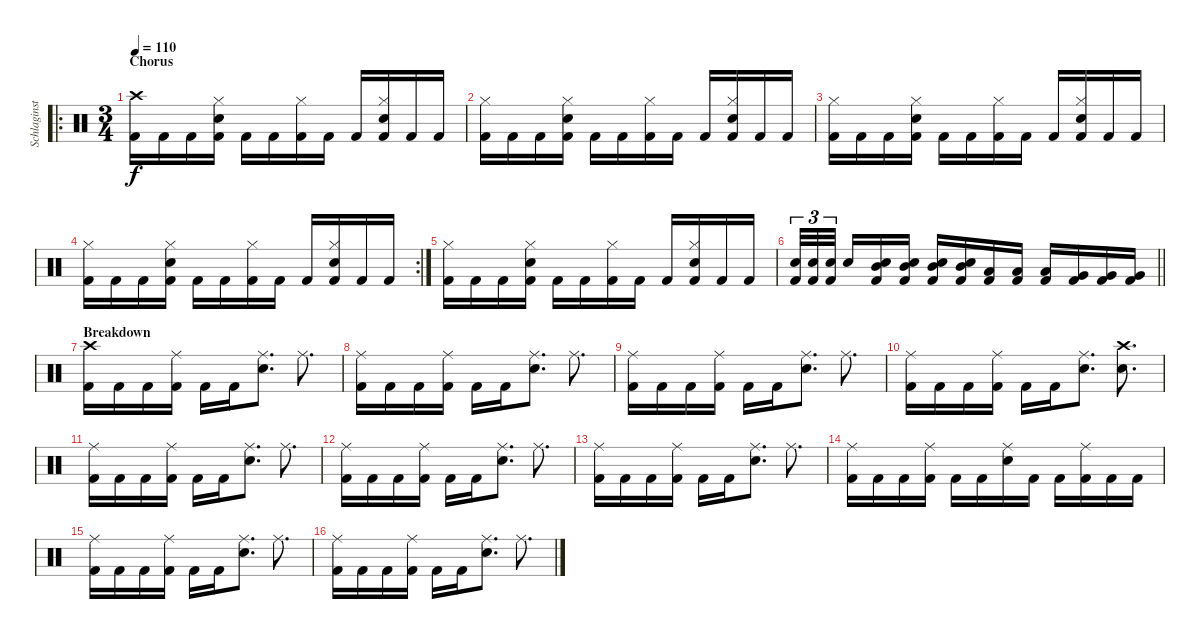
\track ("Schlaginstrumente - Auswahl" "Schlaginst") {instrument percussion}
\staff {score}
\articulation defaults
\ro
\ts (3 4)
\section ("" "Chorus")
\tempo 110
\clef neutral
\ks c
("Crash high (hit)" "Kick (hit) 2").16{dy f} "Kick (hit) 2".16 "Kick (hit) 2".16 ("Hi-Hat (closed)" "Snare (hit) 2" "Kick (hit) 2").16 "Kick (hit) 2".16 "Kick (hit) 2".16 ("Hi-Hat (closed)" "Kick (hit) 2").16 "Kick (hit) 2".16 "Kick (hit) 2".16 ("Hi-Hat (closed)" "Snare (hit) 2" "Kick (hit) 2").16 "Kick (hit) 2".16 "Kick (hit) 2".16 |
("Hi-Hat (closed)" "Kick (hit) 2").16 "Kick (hit) 2".16 "Kick (hit) 2".16 ("Hi-Hat (closed)" "Snare (hit) 2" "Kick (hit) 2").16 "Kick (hit) 2".16 "Kick (hit) 2".16 ("Hi-Hat (closed)" "Kick (hit) 2").16 "Kick (hit) 2".16 "Kick (hit) 2".16 ("Hi-Hat (closed)" "Snare (hit) 2" "Kick (hit) 2").16 "Kick (hit) 2".16 "Kick (hit) 2".16 |
("Hi-Hat (closed)" "Kick (hit) 2").16 "Kick (hit) 2".16 "Kick (hit) 2".16 ("Hi-Hat (closed)" "Snare (hit) 2" "Kick (hit) 2").16 "Kick (hit) 2".16 "Kick (hit) 2".16 ("Hi-Hat (closed)" "Kick (hit) 2").16 "Kick (hit) 2".16 "Kick (hit) 2".16 ("Hi-Hat (closed)" "Snare (hit) 2" "Kick (hit) 2").16 "Kick (hit) 2".16 "Kick (hit) 2".16 |
\rc 2
("Hi-Hat (closed)" "Kick (hit) 2").16 "Kick (hit) 2".16 "Kick (hit) 2".16 ("Hi-Hat (closed)" "Snare (hit) 2" "Kick (hit) 2").16 "Kick (hit) 2".16 "Kick (hit) 2".16 ("Hi-Hat (closed)" "Kick (hit) 2").16 "Kick (hit) 2".16 "Kick (hit) 2".16 ("Hi-Hat (closed)" "Snare (hit) 2" "Kick (hit) 2").16 "Kick (hit) 2".16 "Kick (hit) 2".16 |
("Hi-Hat (closed)" "Kick (hit) 2").16 "Kick (hit) 2".16 "Kick (hit) 2".16 ("Hi-Hat (closed)" "Snare (hit) 2" "Kick (hit) 2").16 "Kick (hit) 2".16 "Kick (hit) 2".16 ("Hi-Hat (closed)" "Kick (hit) 2").16 "Kick (hit) 2".16 "Kick (hit) 2".16 ("Hi-Hat (closed)" "Snare (hit) 2" "Kick (hit) 2").16 "Kick (hit) 2".16 "Kick (hit) 2".16 |
\barLineRight lightlight
("Snare (hit) 2" "Kick (hit) 2").32{tu (3 2)} ("Snare (hit) 2" "Kick (hit) 2").32{tu (3 2)} ("Snare (hit) 2" "Kick (hit) 2").32{tu (3 2) beam splitsecondary} "Snare (hit) 2".16 ("Snare (hit) 2" "Mid Tom (hit)" "Kick (hit) 2").16 ("Snare (hit) 2" "Mid Tom (hit)" "Kick (hit) 2").16 ("Snare (hit) 2" "Mid Tom (hit)" "Kick (hit) 2").16 ("Snare (hit) 2" "Mid Tom (hit)" "Kick (hit) 2").16 ("Low Tom (hit)" "Kick (hit) 2").16 ("Low Tom (hit)" "Kick (hit) 2").16 ("Low Tom (hit)" "Kick (hit) 2").16 ("Very Low Tom (hit)" "Kick (hit) 2").16 ("Very Low Tom (hit)" "Kick (hit) 2").16 ("Very Low Tom (hit)" "Kick (hit) 2").16 |
\section ("" "Breakdown")
("Crash high (hit)" "Kick (hit) 2").16 "Kick (hit) 2".16 "Kick (hit) 2".16 ("Ride (middle)" "Kick (hit) 2").16 "Kick (hit) 2".16 "Kick (hit) 2".16 ("Ride (middle)" "Snare (hit) 2").8{d} "Ride (middle)".8{d} |
("Ride (middle)" "Kick (hit) 2").16 "Kick (hit) 2".16 "Kick (hit) 2".16 ("Ride (middle)" "Kick (hit) 2").16 "Kick (hit) 2".16 "Kick (hit) 2".16 ("Ride (middle)" "Snare (hit) 2").8{d} "Ride (middle)".8{d} |
("Ride (middle)" "Kick (hit) 2").16 "Kick (hit) 2".16 "Kick (hit) 2".16 ("Ride (middle)" "Kick (hit) 2").16 "Kick (hit) 2".16 "Kick (hit) 2".16 ("Ride (middle)" "Snare (hit) 2").8{d} "Ride (middle)".8{d} |
("Ride (middle)" "Kick (hit) 2").16 "Kick (hit) 2".16 "Kick (hit) 2".16 ("Ride (middle)" "Kick (hit) 2").16 "Kick (hit) 2".16 "Kick (hit) 2".16 ("Ride (middle)" "Snare (hit) 2").8{d} ("Crash high (hit)" "Snare (hit) 2").8{d} |
("Ride (middle)" "Kick (hit) 2").16 "Kick (hit) 2".16 "Kick (hit) 2".16 ("Ride (middle)" "Kick (hit) 2").16 "Kick (hit) 2".16 "Kick (hit) 2".16 ("Ride (middle)" "Snare (hit) 2").8{d} "Ride (middle)".8{d} |
("Ride (middle)" "Kick (hit) 2").16 "Kick (hit) 2".16 "Kick (hit) 2".16 ("Ride (middle)" "Kick (hit) 2").16 "Kick (hit) 2".16 "Kick (hit) 2".16 ("Ride (middle)" "Snare (hit) 2").8{d} "Ride (middle)".8{d} |
("Ride (middle)" "Kick (hit) 2").16 "Kick (hit) 2".16 "Kick (hit) 2".16 ("Ride (middle)" "Kick (hit) 2").16 "Kick (hit) 2".16 "Kick (hit) 2".16 ("Ride (middle)" "Snare (hit) 2").8{d} "Ride (middle)".8{d} |
("Ride (middle)" "Kick (hit) 2").16 "Kick (hit) 2".16 "Kick (hit) 2".16 ("Ride (middle)" "Kick (hit) 2").16 "Kick (hit) 2".16 "Kick (hit) 2".16 ("Ride (middle)" "Snare (hit) 2").16 "Kick (hit) 2".16 "Kick (hit) 2".16 ("Ride (middle)" "Kick (hit) 2").16 "Kick (hit) 2".16 "Kick (hit) 2".16 |
("Ride (middle)" "Kick (hit) 2").16 "Kick (hit) 2".16 "Kick (hit) 2".16 ("Ride (middle)" "Kick (hit) 2").16 "Kick (hit) 2".16 "Kick (hit) 2".16 ("Ride (middle)" "Snare (hit) 2").8{d} "Ride (middle)".8{d} |
("Ride (middle)" "Kick (hit) 2").16 "Kick (hit) 2".16 "Kick (hit) 2".16 ("Ride (middle)" "Kick (hit) 2").16 "Kick (hit) 2".16 "Kick (hit) 2".16 ("Ride (middle)" "Snare (hit) 2").8{d} "Ride (middle)".8{d}
